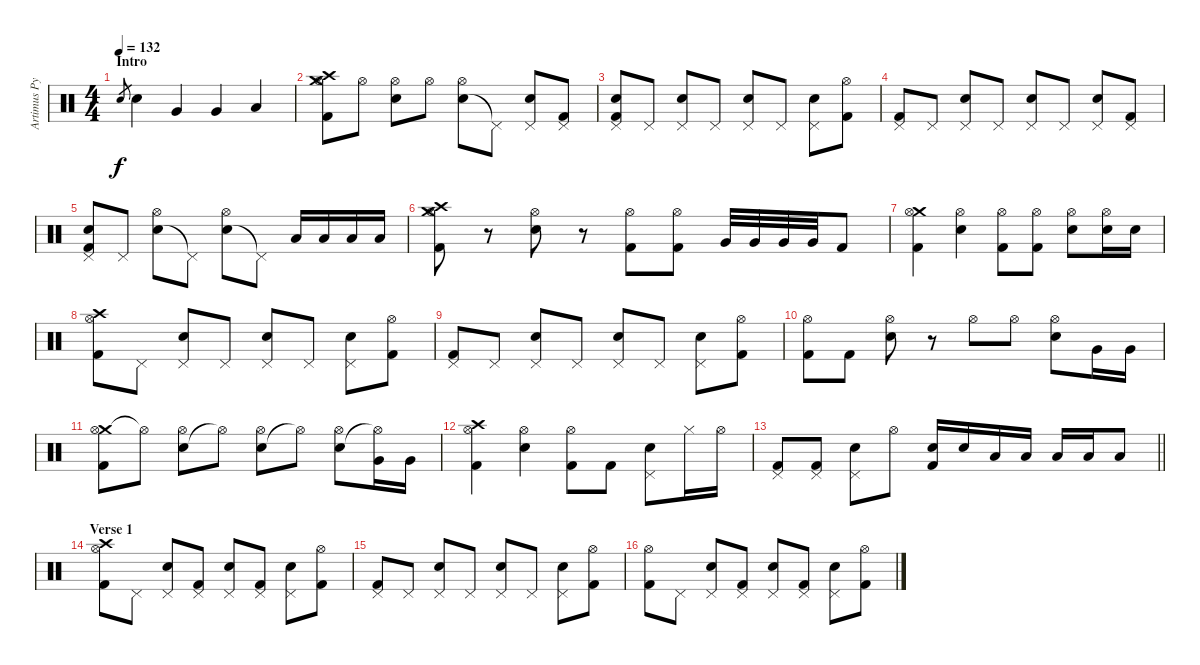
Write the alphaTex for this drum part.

\track ("Artimus Pyle" "Artimus Py") {instrument percussion}
\staff {score}
\articulation defaults
\ts (4 4)
\section ("" "Intro")
\tempo 132
\clef neutral
\ks c "Snare (hit) 2".8{gr dy f} "Snare (hit) 2".4 "Very Low Tom (hit)".4 "Very Low Tom (hit)".4 "Low Floor Tom (hit)".4
|
("Crash medium (hit)" "Crash high (hit)" "Hi-Hat (open)" "Kick (hit) 2").8 "Hi-Hat (open)".8 ("Snare (hit) 2" "Hi-Hat (open)").8 "Hi-Hat (open)".8 ("Snare (hit) 2" "Hi-Hat (open)").8 "Pedal Hi-Hat (hit)"{t}.8 ("Snare (hit) 2" "Pedal Hi-Hat (hit)").8 ("Pedal Hi-Hat (hit)" "Kick (hit) 2").8 |
("Snare (hit) 2" "Pedal Hi-Hat (hit)" "Kick (hit) 2").8 "Pedal Hi-Hat (hit)".8 ("Snare (hit) 2" "Pedal Hi-Hat (hit)").8 "Pedal Hi-Hat (hit)".8 ("Snare (hit) 2" "Pedal Hi-Hat (hit)").8 "Pedal Hi-Hat (hit)".8 ("Snare (hit) 2" "Pedal Hi-Hat (hit)").8 ("Hi-Hat (open)" "Kick (hit) 2").8 |
("Pedal Hi-Hat (hit)" "Kick (hit) 2").8 "Pedal Hi-Hat (hit)".8 ("Snare (hit) 2" "Pedal Hi-Hat (hit)").8 "Pedal Hi-Hat (hit)".8 ("Snare (hit) 2" "Pedal Hi-Hat (hit)").8 "Pedal Hi-Hat (hit)".8 ("Snare (hit) 2" "Pedal Hi-Hat (hit)").8 ("Pedal Hi-Hat (hit)" "Kick (hit) 2").8 |
("Snare (hit) 2" "Pedal Hi-Hat (hit)" "Kick (hit) 2").8 "Pedal Hi-Hat (hit)".8 ("Snare (hit) 2" "Hi-Hat (open)").8 "Pedal Hi-Hat (hit)"{t}.8 ("Snare (hit) 2" "Hi-Hat (open)").8 "Pedal Hi-Hat (hit)"{t}.8 "Low Tom (hit)".16 "Low Tom (hit)".16 "Low Tom (hit)".16 "Low Tom (hit)".16 |
("Crash medium (hit)" "Crash high (hit)" "Hi-Hat (open)" "Kick (hit) 2").8 r.8 ("Snare (hit) 2" "Hi-Hat (open)").8 r.8 ("Hi-Hat (open)" "Kick (hit) 2").8 ("Hi-Hat (open)" "Kick (hit) 2").8 "Very Low Tom (hit)".32 "Very Low Tom (hit)".32 "Very Low Tom (hit)".32 "Very Low Tom (hit)".32 "Kick (hit) 2".8 |
("Crash medium (hit)" "Hi-Hat (open)" "Kick (hit) 2").4 ("Snare (hit) 2" "Hi-Hat (open)").4 ("Hi-Hat (open)" "Kick (hit) 2").8 ("Hi-Hat (open)" "Kick (hit) 2").8 ("Snare (hit) 2" "Hi-Hat (open)").8 ("Snare (hit) 2" "Hi-Hat (open)").16 "Snare (hit) 2".16 |
("Crash high (hit)" "Hi-Hat (open)" "Kick (hit) 2").8 "Pedal Hi-Hat (hit)".8 ("Snare (hit) 2" "Pedal Hi-Hat (hit)").8 "Pedal Hi-Hat (hit)".8 ("Snare (hit) 2" "Pedal Hi-Hat (hit)").8 "Pedal Hi-Hat (hit)".8 ("Snare (hit) 2" "Pedal Hi-Hat (hit)").8 ("Hi-Hat (open)" "Kick (hit) 2").8 |
("Pedal Hi-Hat (hit)" "Kick (hit) 2").8 "Pedal Hi-Hat (hit)".8 ("Snare (hit) 2" "Pedal Hi-Hat (hit)").8 "Pedal Hi-Hat (hit)".8 ("Snare (hit) 2" "Pedal Hi-Hat (hit)").8 "Pedal Hi-Hat (hit)".8 ("Snare (hit) 2" "Pedal Hi-Hat (hit)").8 ("Hi-Hat (open)" "Kick (hit) 2").8 |
("Hi-Hat (open)" "Kick (hit) 2").8 "Kick (hit) 2".8 ("Snare (hit) 2" "Hi-Hat (open)").8 r.8 "Hi-Hat (open)".8 "Hi-Hat (open)".8 ("Snare (hit) 2" "Hi-Hat (open)").8 "Very Low Tom (hit)".16 "Very Low Tom (hit)".16 |
("Crash medium (hit)" "Hi-Hat (open)" "Kick (hit) 2").8 "Hi-Hat (open)"{t}.8 ("Snare (hit) 2" "Hi-Hat (open)").8 "Hi-Hat (open)"{t}.8 ("Snare (hit) 2" "Hi-Hat (open)").8 "Hi-Hat (open)"{t}.8 ("Snare (hit) 2" "Hi-Hat (open)").8 ("Hi-Hat (open)"{t} "Very Low Tom (hit)").16 "Very Low Tom (hit)".16 |
("Crash high (hit)" "Hi-Hat (open)" "Kick (hit) 2").4 ("Snare (hit) 2" "Hi-Hat (open)").4 ("Hi-Hat (open)" "Kick (hit) 2").8 "Kick (hit) 2".8 ("Snare (hit) 2" "Pedal Hi-Hat (hit)").8 "Hi-Hat (closed)".16 "Hi-Hat (open)".16 |
\barLineRight lightlight
("Pedal Hi-Hat (hit)" "Kick (hit) 2").8 ("Pedal Hi-Hat (hit)" "Kick (hit) 2").8 ("Snare (hit) 2" "Pedal Hi-Hat (hit)").8 "Hi-Hat (open)".8 ("Snare (hit) 2" "Kick (hit) 2").16 "Snare (hit) 2".16 "Low Tom (hit)".16 "Low Tom (hit)".16 "Low Tom (hit)".16 "Low Tom (hit)".16 "Low Tom (hit)".8 |
\section ("" "Verse 1")
("Crash high (hit)" "Hi-Hat (open)" "Kick (hit) 2").8 "Pedal Hi-Hat (hit)".8 ("Snare (hit) 2" "Pedal Hi-Hat (hit)").8 ("Pedal Hi-Hat (hit)" "Kick (hit) 2").8 ("Snare (hit) 2" "Pedal Hi-Hat (hit)").8 ("Pedal Hi-Hat (hit)" "Kick (hit) 2").8 ("Snare (hit) 2" "Pedal Hi-Hat (hit)").8 ("Hi-Hat (open)" "Kick (hit) 2").8 |
("Pedal Hi-Hat (hit)" "Kick (hit) 2").8 "Pedal Hi-Hat (hit)".8 ("Snare (hit) 2" "Pedal Hi-Hat (hit)").8 "Pedal Hi-Hat (hit)".8 ("Snare (hit) 2" "Pedal Hi-Hat (hit)").8 "Pedal Hi-Hat (hit)".8 ("Snare (hit) 2" "Pedal Hi-Hat (hit)").8 ("Hi-Hat (open)" "Kick (hit) 2").8 |
("Hi-Hat (open)" "Kick (hit) 2").8 "Pedal Hi-Hat (hit)".8 ("Snare (hit) 2" "Pedal Hi-Hat (hit)").8 ("Pedal Hi-Hat (hit)" "Kick (hit) 2").8 ("Snare (hit) 2" "Pedal Hi-Hat (hit)").8 ("Pedal Hi-Hat (hit)" "Kick (hit) 2").8 ("Snare (hit) 2" "Pedal Hi-Hat (hit)").8 ("Hi-Hat (open)" "Kick (hit) 2").8
